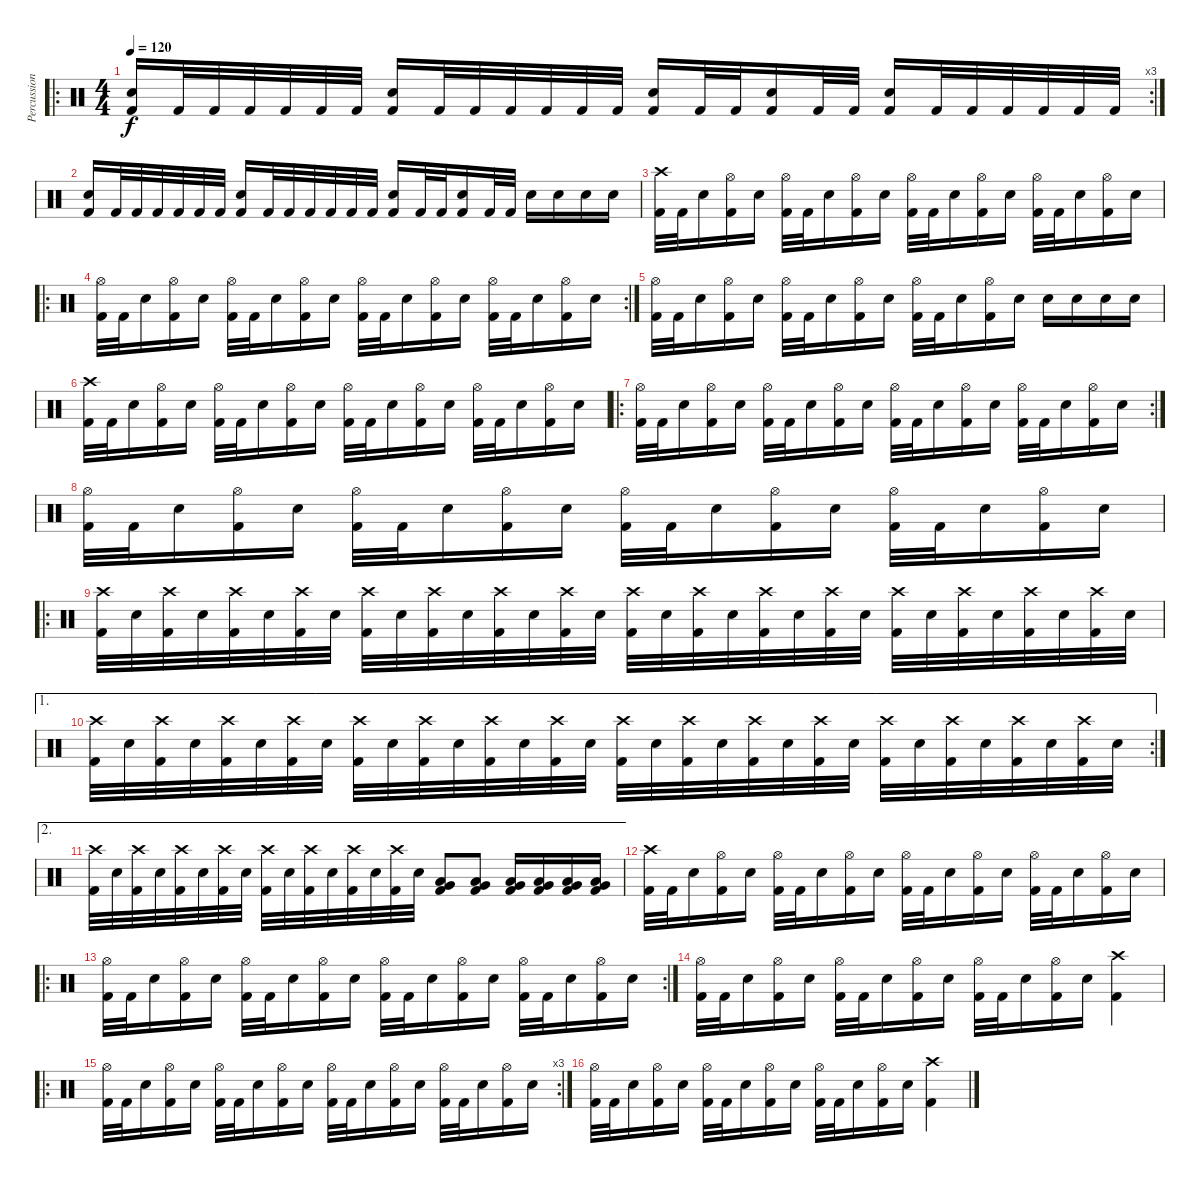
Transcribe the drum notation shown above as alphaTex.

\track ("Percussion" "Percussion") {instrument percussion}
\staff {score}
\articulation defaults
\ro
\rc 3
\ts (4 4)
\tempo 120
\clef neutral
\ks c
("Electric Snare (hit)" "Kick (hit) 2").16{dy f} "Kick (hit) 2".32 "Kick (hit) 2".32 "Kick (hit) 2".32 "Kick (hit) 2".32 "Kick (hit) 2".32 "Kick (hit) 2".32 ("Electric Snare (hit)" "Kick (hit) 2").16 "Kick (hit) 2".32 "Kick (hit) 2".32 "Kick (hit) 2".32 "Kick (hit) 2".32 "Kick (hit) 2".32 "Kick (hit) 2".32 ("Electric Snare (hit)" "Kick (hit) 2").16 "Kick (hit) 2".32 "Kick (hit) 2".32 ("Electric Snare (hit)" "Kick (hit) 2").16 "Kick (hit) 2".32 "Kick (hit) 2".32 ("Electric Snare (hit)" "Kick (hit) 2").16 "Kick (hit) 2".32 "Kick (hit) 2".32 "Kick (hit) 2".32 "Kick (hit) 2".32 "Kick (hit) 2".32 "Kick (hit) 2".32 |
("Electric Snare (hit)" "Kick (hit) 2").16 "Kick (hit) 2".32 "Kick (hit) 2".32 "Kick (hit) 2".32 "Kick (hit) 2".32 "Kick (hit) 2".32 "Kick (hit) 2".32 ("Electric Snare (hit)" "Kick (hit) 2").16 "Kick (hit) 2".32 "Kick (hit) 2".32 "Kick (hit) 2".32 "Kick (hit) 2".32 "Kick (hit) 2".32 "Kick (hit) 2".32 ("Electric Snare (hit)" "Kick (hit) 2").16 "Kick (hit) 2".32 "Kick (hit) 2".32 ("Electric Snare (hit)" "Kick (hit) 2").16 "Kick (hit) 2".32 "Kick (hit) 2".32 "Electric Snare (hit)".16 "Electric Snare (hit)".16 "Electric Snare (hit)".16 "Electric Snare (hit)".16 |
("Crash high (hit)" "Kick (hit) 2").32 "Kick (hit) 2".32 "Electric Snare (hit)".16 ("Hi-Hat (open)" "Kick (hit) 2").16 "Electric Snare (hit)".16 ("Hi-Hat (open)" "Kick (hit) 2").32 "Kick (hit) 2".32 "Electric Snare (hit)".16 ("Hi-Hat (open)" "Kick (hit) 2").16 "Electric Snare (hit)".16 ("Hi-Hat (open)" "Kick (hit) 2").32 "Kick (hit) 2".32 "Electric Snare (hit)".16 ("Hi-Hat (open)" "Kick (hit) 2").16 "Electric Snare (hit)".16 ("Hi-Hat (open)" "Kick (hit) 2").32 "Kick (hit) 2".32 "Electric Snare (hit)".16 ("Hi-Hat (open)" "Kick (hit) 2").16 "Electric Snare (hit)".16 |
\ro
\rc 2
("Hi-Hat (open)" "Kick (hit) 2").32 "Kick (hit) 2".32 "Electric Snare (hit)".16 ("Hi-Hat (open)" "Kick (hit) 2").16 "Electric Snare (hit)".16 ("Hi-Hat (open)" "Kick (hit) 2").32 "Kick (hit) 2".32 "Electric Snare (hit)".16 ("Hi-Hat (open)" "Kick (hit) 2").16 "Electric Snare (hit)".16 ("Hi-Hat (open)" "Kick (hit) 2").32 "Kick (hit) 2".32 "Electric Snare (hit)".16 ("Hi-Hat (open)" "Kick (hit) 2").16 "Electric Snare (hit)".16 ("Hi-Hat (open)" "Kick (hit) 2").32 "Kick (hit) 2".32 "Electric Snare (hit)".16 ("Hi-Hat (open)" "Kick (hit) 2").16 "Electric Snare (hit)".16 |
("Hi-Hat (open)" "Kick (hit) 2").32 "Kick (hit) 2".32 "Electric Snare (hit)".16 ("Hi-Hat (open)" "Kick (hit) 2").16 "Electric Snare (hit)".16 ("Hi-Hat (open)" "Kick (hit) 2").32 "Kick (hit) 2".32 "Electric Snare (hit)".16 ("Hi-Hat (open)" "Kick (hit) 2").16 "Electric Snare (hit)".16 ("Hi-Hat (open)" "Kick (hit) 2").32 "Kick (hit) 2".32 "Electric Snare (hit)".16 ("Hi-Hat (open)" "Kick (hit) 2").16 "Electric Snare (hit)".16 "Electric Snare (hit)".16 "Electric Snare (hit)".16 "Electric Snare (hit)".16 "Electric Snare (hit)".16 |
("Crash high (hit)" "Kick (hit) 2").32 "Kick (hit) 2".32 "Electric Snare (hit)".16 ("Hi-Hat (open)" "Kick (hit) 2").16 "Electric Snare (hit)".16 ("Hi-Hat (open)" "Kick (hit) 2").32 "Kick (hit) 2".32 "Electric Snare (hit)".16 ("Hi-Hat (open)" "Kick (hit) 2").16 "Electric Snare (hit)".16 ("Hi-Hat (open)" "Kick (hit) 2").32 "Kick (hit) 2".32 "Electric Snare (hit)".16 ("Hi-Hat (open)" "Kick (hit) 2").16 "Electric Snare (hit)".16 ("Hi-Hat (open)" "Kick (hit) 2").32 "Kick (hit) 2".32 "Electric Snare (hit)".16 ("Hi-Hat (open)" "Kick (hit) 2").16 "Electric Snare (hit)".16 |
\ro
\rc 2
("Hi-Hat (open)" "Kick (hit) 2").32 "Kick (hit) 2".32 "Electric Snare (hit)".16 ("Hi-Hat (open)" "Kick (hit) 2").16 "Electric Snare (hit)".16 ("Hi-Hat (open)" "Kick (hit) 2").32 "Kick (hit) 2".32 "Electric Snare (hit)".16 ("Hi-Hat (open)" "Kick (hit) 2").16 "Electric Snare (hit)".16 ("Hi-Hat (open)" "Kick (hit) 2").32 "Kick (hit) 2".32 "Electric Snare (hit)".16 ("Hi-Hat (open)" "Kick (hit) 2").16 "Electric Snare (hit)".16 ("Hi-Hat (open)" "Kick (hit) 2").32 "Kick (hit) 2".32 "Electric Snare (hit)".16 ("Hi-Hat (open)" "Kick (hit) 2").16 "Electric Snare (hit)".16 |
("Hi-Hat (open)" "Kick (hit) 2").32 "Kick (hit) 2".32 "Electric Snare (hit)".16 ("Hi-Hat (open)" "Kick (hit) 2").16 "Electric Snare (hit)".16 ("Hi-Hat (open)" "Kick (hit) 2").32 "Kick (hit) 2".32 "Electric Snare (hit)".16 ("Hi-Hat (open)" "Kick (hit) 2").16 "Electric Snare (hit)".16 ("Hi-Hat (open)" "Kick (hit) 2").32 "Kick (hit) 2".32 "Electric Snare (hit)".16 ("Hi-Hat (open)" "Kick (hit) 2").16 "Electric Snare (hit)".16 ("Hi-Hat (open)" "Kick (hit) 2").32 "Kick (hit) 2".32 "Electric Snare (hit)".16 ("Hi-Hat (open)" "Kick (hit) 2").16 "Electric Snare (hit)".16 |
\ro
("Crash high (hit)" "Kick (hit) 2").32 "Electric Snare (hit)".32 ("Crash high (hit)" "Kick (hit) 2").32 "Electric Snare (hit)".32 ("Crash high (hit)" "Kick (hit) 2").32 "Electric Snare (hit)".32 ("Crash high (hit)" "Kick (hit) 2").32 "Electric Snare (hit)".32 ("Crash high (hit)" "Kick (hit) 2").32 "Electric Snare (hit)".32 ("Crash high (hit)" "Kick (hit) 2").32 "Electric Snare (hit)".32 ("Crash high (hit)" "Kick (hit) 2").32 "Electric Snare (hit)".32 ("Crash high (hit)" "Kick (hit) 2").32 "Electric Snare (hit)".32 ("Crash high (hit)" "Kick (hit) 2").32 "Electric Snare (hit)".32 ("Crash high (hit)" "Kick (hit) 2").32 "Electric Snare (hit)".32 ("Crash high (hit)" "Kick (hit) 2").32 "Electric Snare (hit)".32 ("Crash high (hit)" "Kick (hit) 2").32 "Electric Snare (hit)".32 ("Crash high (hit)" "Kick (hit) 2").32 "Electric Snare (hit)".32 ("Crash high (hit)" "Kick (hit) 2").32 "Electric Snare (hit)".32 ("Crash high (hit)" "Kick (hit) 2").32 "Electric Snare (hit)".32 ("Crash high (hit)" "Kick (hit) 2").32 "Electric Snare (hit)".32 |
\ae 1
\rc 2
("Crash high (hit)" "Kick (hit) 2").32 "Electric Snare (hit)".32 ("Crash high (hit)" "Kick (hit) 2").32 "Electric Snare (hit)".32 ("Crash high (hit)" "Kick (hit) 2").32 "Electric Snare (hit)".32 ("Crash high (hit)" "Kick (hit) 2").32 "Electric Snare (hit)".32 ("Crash high (hit)" "Kick (hit) 2").32 "Electric Snare (hit)".32 ("Crash high (hit)" "Kick (hit) 2").32 "Electric Snare (hit)".32 ("Crash high (hit)" "Kick (hit) 2").32 "Electric Snare (hit)".32 ("Crash high (hit)" "Kick (hit) 2").32 "Electric Snare (hit)".32 ("Crash high (hit)" "Kick (hit) 2").32 "Electric Snare (hit)".32 ("Crash high (hit)" "Kick (hit) 2").32 "Electric Snare (hit)".32 ("Crash high (hit)" "Kick (hit) 2").32 "Electric Snare (hit)".32 ("Crash high (hit)" "Kick (hit) 2").32 "Electric Snare (hit)".32 ("Crash high (hit)" "Kick (hit) 2").32 "Electric Snare (hit)".32 ("Crash high (hit)" "Kick (hit) 2").32 "Electric Snare (hit)".32 ("Crash high (hit)" "Kick (hit) 2").32 "Electric Snare (hit)".32 ("Crash high (hit)" "Kick (hit) 2").32 "Electric Snare (hit)".32 |
\ae 2
("Crash high (hit)" "Kick (hit) 2").32 "Electric Snare (hit)".32 ("Crash high (hit)" "Kick (hit) 2").32 "Electric Snare (hit)".32 ("Crash high (hit)" "Kick (hit) 2").32 "Electric Snare (hit)".32 ("Crash high (hit)" "Kick (hit) 2").32 "Electric Snare (hit)".32 ("Crash high (hit)" "Kick (hit) 2").32 "Electric Snare (hit)".32 ("Crash high (hit)" "Kick (hit) 2").32 "Electric Snare (hit)".32 ("Crash high (hit)" "Kick (hit) 2").32 "Electric Snare (hit)".32 ("Crash high (hit)" "Kick (hit) 2").32 "Electric Snare (hit)".32 ("Very Low Tom (hit)" "Low Floor Tom (hit)" "Kick (hit) 2").8 ("Very Low Tom (hit)" "Low Floor Tom (hit)" "Kick (hit) 2").8 ("Very Low Tom (hit)" "Low Floor Tom (hit)" "Kick (hit) 2").16 ("Very Low Tom (hit)" "Low Floor Tom (hit)" "Kick (hit) 2").16 ("Very Low Tom (hit)" "Low Floor Tom (hit)" "Kick (hit) 2").16 ("Very Low Tom (hit)" "Low Floor Tom (hit)" "Kick (hit) 2").16 |
("Crash high (hit)" "Kick (hit) 2").32 "Kick (hit) 2".32 "Electric Snare (hit)".16 ("Hi-Hat (open)" "Kick (hit) 2").16 "Electric Snare (hit)".16 ("Hi-Hat (open)" "Kick (hit) 2").32 "Kick (hit) 2".32 "Electric Snare (hit)".16 ("Hi-Hat (open)" "Kick (hit) 2").16 "Electric Snare (hit)".16 ("Hi-Hat (open)" "Kick (hit) 2").32 "Kick (hit) 2".32 "Electric Snare (hit)".16 ("Hi-Hat (open)" "Kick (hit) 2").16 "Electric Snare (hit)".16 ("Hi-Hat (open)" "Kick (hit) 2").32 "Kick (hit) 2".32 "Electric Snare (hit)".16 ("Hi-Hat (open)" "Kick (hit) 2").16 "Electric Snare (hit)".16 |
\ro
\rc 2
("Hi-Hat (open)" "Kick (hit) 2").32 "Kick (hit) 2".32 "Electric Snare (hit)".16 ("Hi-Hat (open)" "Kick (hit) 2").16 "Electric Snare (hit)".16 ("Hi-Hat (open)" "Kick (hit) 2").32 "Kick (hit) 2".32 "Electric Snare (hit)".16 ("Hi-Hat (open)" "Kick (hit) 2").16 "Electric Snare (hit)".16 ("Hi-Hat (open)" "Kick (hit) 2").32 "Kick (hit) 2".32 "Electric Snare (hit)".16 ("Hi-Hat (open)" "Kick (hit) 2").16 "Electric Snare (hit)".16 ("Hi-Hat (open)" "Kick (hit) 2").32 "Kick (hit) 2".32 "Electric Snare (hit)".16 ("Hi-Hat (open)" "Kick (hit) 2").16 "Electric Snare (hit)".16 |
("Hi-Hat (open)" "Kick (hit) 2").32 "Kick (hit) 2".32 "Electric Snare (hit)".16 ("Hi-Hat (open)" "Kick (hit) 2").16 "Electric Snare (hit)".16 ("Hi-Hat (open)" "Kick (hit) 2").32 "Kick (hit) 2".32 "Electric Snare (hit)".16 ("Hi-Hat (open)" "Kick (hit) 2").16 "Electric Snare (hit)".16 ("Hi-Hat (open)" "Kick (hit) 2").32 "Kick (hit) 2".32 "Electric Snare (hit)".16 ("Hi-Hat (open)" "Kick (hit) 2").16 "Electric Snare (hit)".16 ("Crash high (hit)" "Kick (hit) 2").4 |
\ro
\rc 3
("Hi-Hat (open)" "Kick (hit) 2").32 "Kick (hit) 2".32 "Electric Snare (hit)".16 ("Hi-Hat (open)" "Kick (hit) 2").16 "Electric Snare (hit)".16 ("Hi-Hat (open)" "Kick (hit) 2").32 "Kick (hit) 2".32 "Electric Snare (hit)".16 ("Hi-Hat (open)" "Kick (hit) 2").16 "Electric Snare (hit)".16 ("Hi-Hat (open)" "Kick (hit) 2").32 "Kick (hit) 2".32 "Electric Snare (hit)".16 ("Hi-Hat (open)" "Kick (hit) 2").16 "Electric Snare (hit)".16 ("Hi-Hat (open)" "Kick (hit) 2").32 "Kick (hit) 2".32 "Electric Snare (hit)".16 ("Hi-Hat (open)" "Kick (hit) 2").16 "Electric Snare (hit)".16 |
("Hi-Hat (open)" "Kick (hit) 2").32 "Kick (hit) 2".32 "Electric Snare (hit)".16 ("Hi-Hat (open)" "Kick (hit) 2").16 "Electric Snare (hit)".16 ("Hi-Hat (open)" "Kick (hit) 2").32 "Kick (hit) 2".32 "Electric Snare (hit)".16 ("Hi-Hat (open)" "Kick (hit) 2").16 "Electric Snare (hit)".16 ("Hi-Hat (open)" "Kick (hit) 2").32 "Kick (hit) 2".32 "Electric Snare (hit)".16 ("Hi-Hat (open)" "Kick (hit) 2").16 "Electric Snare (hit)".16 ("Crash high (hit)" "Kick (hit) 2").4
